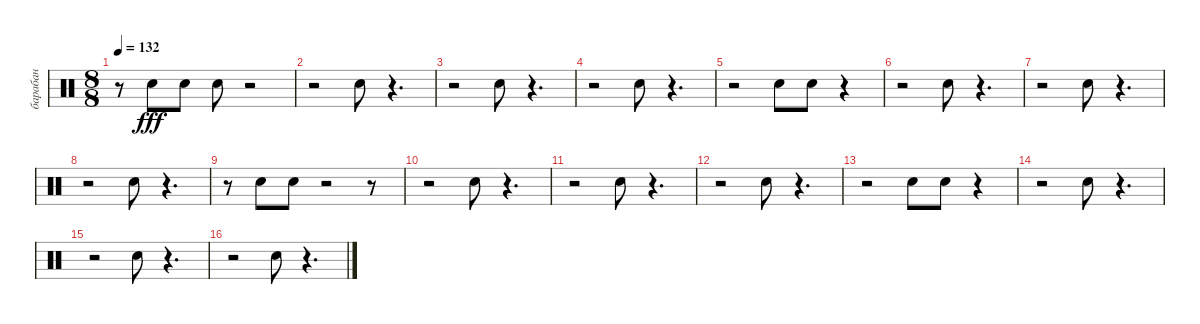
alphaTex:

\track ("барабан" "барабан") {instrument percussion}
\staff {score}
\articulation defaults
\ts (8 8)
\tempo 132
\clef neutral
\ks c
r.8{dy fff} "Snare (hit) 2".8 "Snare (hit) 2".8 "Snare (hit) 2".8 r.2 |
r.2 "Snare (hit) 2".8 r.4{d} |
r.2 "Snare (hit) 2".8 r.4{d} |
r.2 "Snare (hit) 2".8 r.4{d} |
r.2 "Snare (hit) 2".8 "Snare (hit) 2".8 r.4 |
r.2 "Snare (hit) 2".8 r.4{d} |
r.2 "Snare (hit) 2".8 r.4{d} |
r.2 "Snare (hit) 2".8 r.4{d} |
r.8 "Snare (hit) 2".8 "Snare (hit) 2".8 r.2 r.8 |
r.2 "Snare (hit) 2".8 r.4{d} |
r.2 "Snare (hit) 2".8 r.4{d} |
r.2 "Snare (hit) 2".8 r.4{d} |
r.2 "Snare (hit) 2".8 "Snare (hit) 2".8 r.4 |
r.2 "Snare (hit) 2".8 r.4{d} |
r.2 "Snare (hit) 2".8 r.4{d} |
r.2 "Snare (hit) 2".8 r.4{d}
